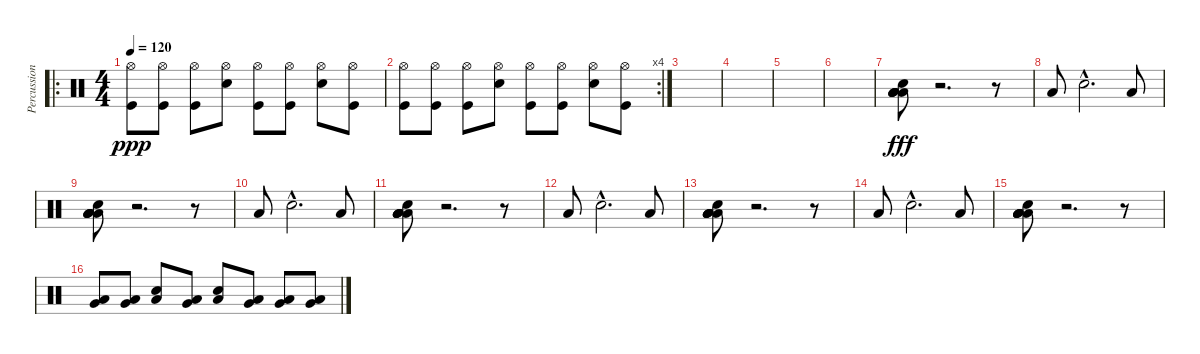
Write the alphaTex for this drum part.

\track ("Percussion" "Percussion") {instrument percussion}
\staff {score}
\articulation defaults
\ro
\ts (4 4)
\tempo 120
\clef neutral
\ks c
("Kick (hit)" "Hi-Hat (open)").8{dy ppp} ("Kick (hit)" "Hi-Hat (open)").8 ("Kick (hit)" "Hi-Hat (open)").8 ("Snare (hit) 2" "Hi-Hat (open)").8 ("Kick (hit)" "Hi-Hat (open)").8 ("Kick (hit)" "Hi-Hat (open)").8 ("Snare (hit) 2" "Hi-Hat (open)").8 ("Kick (hit)" "Hi-Hat (open)").8 |
\rc 4
("Kick (hit)" "Hi-Hat (open)").8 ("Kick (hit)" "Hi-Hat (open)").8 ("Kick (hit)" "Hi-Hat (open)").8 ("Snare (hit) 2" "Hi-Hat (open)").8 ("Kick (hit)" "Hi-Hat (open)").8 ("Kick (hit)" "Hi-Hat (open)").8 ("Snare (hit) 2" "Hi-Hat (open)").8 ("Kick (hit)" "Hi-Hat (open)").8 |
|
|
|
|
("Snare (hit) 2" "Low Floor Tom (hit)" "Low Floor Tom (hit)" "Low Floor Tom (hit)" "Low Floor Tom (hit)" "Low Floor Tom (hit)").8{dy fff} r.2{d} r.8 |
"Low Floor Tom (hit)".8 "Snare (hit) 2"{hac}.2{d} "Low Floor Tom (hit)".8 |
("Snare (hit) 2" "Low Floor Tom (hit)" "Low Floor Tom (hit)" "Low Floor Tom (hit)" "Low Floor Tom (hit)" "Low Floor Tom (hit)").8 r.2{d} r.8 |
"Low Floor Tom (hit)".8 "Snare (hit) 2"{hac}.2{d} "Low Floor Tom (hit)".8 |
("Snare (hit) 2" "Low Floor Tom (hit)" "Low Floor Tom (hit)" "Low Floor Tom (hit)" "Low Floor Tom (hit)" "Low Floor Tom (hit)").8 r.2{d} r.8 |
"Low Floor Tom (hit)".8 "Snare (hit) 2"{hac}.2{d} "Low Floor Tom (hit)".8 |
("Snare (hit) 2" "Low Floor Tom (hit)" "Low Floor Tom (hit)" "Low Floor Tom (hit)" "Low Floor Tom (hit)" "Low Floor Tom (hit)").8 r.2{d} r.8 |
"Low Floor Tom (hit)".8 "Snare (hit) 2"{hac}.2{d} "Low Floor Tom (hit)".8 |
("Snare (hit) 2" "Low Floor Tom (hit)" "Low Floor Tom (hit)" "Low Floor Tom (hit)" "Low Floor Tom (hit)" "Low Floor Tom (hit)").8 r.2{d} r.8 |
("Very Low Tom (hit)" "Low Floor Tom (hit)").8 ("Very Low Tom (hit)" "Low Floor Tom (hit)").8 ("Snare (hit) 2" "Low Floor Tom (hit)").8 ("Very Low Tom (hit)" "Low Floor Tom (hit)").8 ("Snare (hit) 2" "Low Floor Tom (hit)").8 ("Very Low Tom (hit)" "Low Floor Tom (hit)").8 ("Very Low Tom (hit)" "Low Floor Tom (hit)").8 ("Very Low Tom (hit)" "Low Floor Tom (hit)").8
